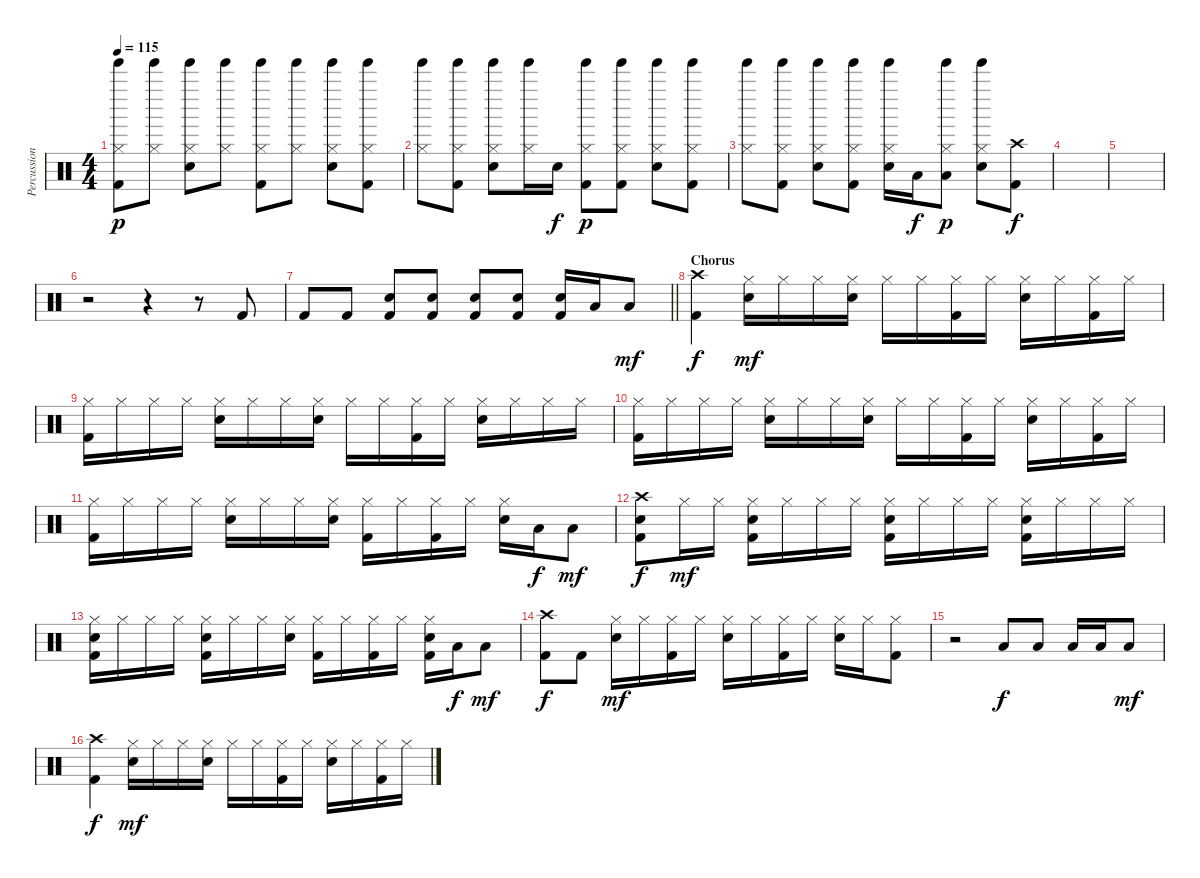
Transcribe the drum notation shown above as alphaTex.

\track ("Percussion" "Percussion") {instrument percussion}
\staff {score}
\articulation defaults
\ts (4 4)
\tempo 115
\clef neutral
\ks c
("Hi-Hat (closed)" "Tinkle Bell (hit)" "Kick (hit) 2").8{dy p} ("Hi-Hat (closed)" "Tinkle Bell (hit)").8 ("Hi-Hat (closed)" "Tinkle Bell (hit)" "Electric Snare (hit)").8 ("Hi-Hat (closed)" "Tinkle Bell (hit)").8 ("Hi-Hat (closed)" "Tinkle Bell (hit)" "Kick (hit) 2").8 ("Hi-Hat (closed)" "Tinkle Bell (hit)").8 ("Hi-Hat (closed)" "Tinkle Bell (hit)" "Electric Snare (hit)").8 ("Hi-Hat (closed)" "Tinkle Bell (hit)" "Kick (hit) 2").8 |
("Hi-Hat (closed)" "Tinkle Bell (hit)").8 ("Hi-Hat (closed)" "Tinkle Bell (hit)" "Kick (hit) 2").8 ("Hi-Hat (closed)" "Tinkle Bell (hit)" "Electric Snare (hit)").8 ("Hi-Hat (closed)" "Tinkle Bell (hit)").16 "Electric Snare (hit)".16{dy f} ("Hi-Hat (closed)" "Tinkle Bell (hit)" "Kick (hit) 2").8{dy p} ("Hi-Hat (closed)" "Tinkle Bell (hit)" "Kick (hit) 2").8 ("Hi-Hat (closed)" "Tinkle Bell (hit)" "Electric Snare (hit)").8 ("Hi-Hat (closed)" "Tinkle Bell (hit)" "Kick (hit) 2").8 |
("Hi-Hat (closed)" "Tinkle Bell (hit)").8 ("Hi-Hat (closed)" "Tinkle Bell (hit)" "Kick (hit) 2").8 ("Hi-Hat (closed)" "Tinkle Bell (hit)" "Electric Snare (hit)").8 ("Hi-Hat (closed)" "Tinkle Bell (hit)" "Kick (hit) 2").8 ("Hi-Hat (closed)" "Tinkle Bell (hit)" "Electric Snare (hit)").16 "Low Tom (hit)".16{dy f} ("Hi-Hat (closed)" "Tinkle Bell (hit)" "Low Tom (hit)").8{dy p} ("Hi-Hat (closed)" "Tinkle Bell (hit)" "Electric Snare (hit)").8 ("Crash high (hit)" "Kick (hit) 2").8{dy f} |
|
|
r.2 r.4 r.8 "Kick (hit) 2".8 |
\barLineRight lightlight "Kick (hit) 2".8 "Kick (hit) 2".8
("Electric Snare (hit)" "Kick (hit) 2").8 ("Electric Snare (hit)" "Kick (hit) 2").8 ("Electric Snare (hit)" "Kick (hit) 2").8 ("Electric Snare (hit)" "Kick (hit) 2").8 ("Electric Snare (hit)" "Kick (hit) 2").16 "Low Tom (hit)".16 "Low Tom (hit)".8{dy mf} |
\section ("" "Chorus")
("Crash high (hit)" "Kick (hit) 2").4{dy f} ("Hi-Hat (closed)" "Electric Snare (hit)").16{dy mf} "Hi-Hat (closed)".16 "Hi-Hat (closed)".16 ("Hi-Hat (closed)" "Electric Snare (hit)").16 "Hi-Hat (closed)".16 "Hi-Hat (closed)".16 ("Hi-Hat (closed)" "Kick (hit) 2").16 "Hi-Hat (closed)".16 ("Hi-Hat (closed)" "Electric Snare (hit)").16 "Hi-Hat (closed)".16 ("Hi-Hat (closed)" "Kick (hit) 2").16 "Hi-Hat (closed)".16 |
("Hi-Hat (closed)" "Kick (hit) 2").16 "Hi-Hat (closed)".16 "Hi-Hat (closed)".16 "Hi-Hat (closed)".16 ("Hi-Hat (closed)" "Electric Snare (hit)").16 "Hi-Hat (closed)".16 "Hi-Hat (closed)".16 ("Hi-Hat (closed)" "Electric Snare (hit)").16 "Hi-Hat (closed)".16 "Hi-Hat (closed)".16 ("Hi-Hat (closed)" "Kick (hit) 2").16 "Hi-Hat (closed)".16 ("Hi-Hat (closed)" "Electric Snare (hit)").16 "Hi-Hat (closed)".16 "Hi-Hat (closed)".16 "Hi-Hat (closed)".16 |
("Hi-Hat (closed)" "Kick (hit) 2").16 "Hi-Hat (closed)".16 "Hi-Hat (closed)".16 "Hi-Hat (closed)".16 ("Hi-Hat (closed)" "Electric Snare (hit)").16 "Hi-Hat (closed)".16 "Hi-Hat (closed)".16 ("Hi-Hat (closed)" "Electric Snare (hit)").16 "Hi-Hat (closed)".16 "Hi-Hat (closed)".16 ("Hi-Hat (closed)" "Kick (hit) 2").16 "Hi-Hat (closed)".16 ("Hi-Hat (closed)" "Electric Snare (hit)").16 "Hi-Hat (closed)".16 ("Hi-Hat (closed)" "Kick (hit) 2").16 "Hi-Hat (closed)".16 |
("Hi-Hat (closed)" "Kick (hit) 2").16 "Hi-Hat (closed)".16 "Hi-Hat (closed)".16 "Hi-Hat (closed)".16 ("Hi-Hat (closed)" "Electric Snare (hit)").16 "Hi-Hat (closed)".16 "Hi-Hat (closed)".16 ("Hi-Hat (closed)" "Electric Snare (hit)").16 ("Hi-Hat (closed)" "Kick (hit) 2").16 "Hi-Hat (closed)".16 ("Hi-Hat (closed)" "Kick (hit) 2").16 "Hi-Hat (closed)".16 ("Hi-Hat (closed)" "Electric Snare (hit)").16 "Low Tom (hit)".16{dy f} "Low Tom (hit)".8{dy mf} |
("Crash high (hit)" "Electric Snare (hit)" "Kick (hit) 2").8{dy f} "Hi-Hat (closed)".16{dy mf} "Hi-Hat (closed)".16 ("Hi-Hat (closed)" "Electric Snare (hit)" "Kick (hit) 2").16 "Hi-Hat (closed)".16 "Hi-Hat (closed)".16 "Hi-Hat (closed)".16 ("Hi-Hat (closed)" "Electric Snare (hit)" "Kick (hit) 2").16 "Hi-Hat (closed)".16 "Hi-Hat (closed)".16 "Hi-Hat (closed)".16 ("Hi-Hat (closed)" "Electric Snare (hit)" "Kick (hit) 2").16 "Hi-Hat (closed)".16 "Hi-Hat (closed)".16 "Hi-Hat (closed)".16 |
("Hi-Hat (closed)" "Electric Snare (hit)" "Kick (hit) 2").16 "Hi-Hat (closed)".16 "Hi-Hat (closed)".16 "Hi-Hat (closed)".16 ("Hi-Hat (closed)" "Electric Snare (hit)" "Kick (hit) 2").16 "Hi-Hat (closed)".16 "Hi-Hat (closed)".16 ("Hi-Hat (closed)" "Electric Snare (hit)").16 ("Hi-Hat (closed)" "Kick (hit) 2").16 "Hi-Hat (closed)".16 ("Hi-Hat (closed)" "Kick (hit) 2").16 "Hi-Hat (closed)".16 ("Hi-Hat (closed)" "Electric Snare (hit)" "Kick (hit) 2").16 "Low Tom (hit)".16{dy f} "Low Tom (hit)".8{dy mf} |
("Crash high (hit)" "Kick (hit) 2").8{dy f} "Kick (hit) 2".8 ("Hi-Hat (closed)" "Electric Snare (hit)").16{dy mf} "Hi-Hat (closed)".16 ("Hi-Hat (closed)" "Kick (hit) 2").16 "Hi-Hat (closed)".16 ("Hi-Hat (closed)" "Electric Snare (hit)").16 "Hi-Hat (closed)".16 ("Hi-Hat (closed)" "Kick (hit) 2").16 "Hi-Hat (closed)".16 ("Hi-Hat (closed)" "Electric Snare (hit)").16 "Hi-Hat (closed)".16 ("Hi-Hat (closed)" "Kick (hit) 2").8 |
r.2 "Low Tom (hit)".8{dy f} "Low Tom (hit)".8 "Low Tom (hit)".16 "Low Tom (hit)".16 "Low Tom (hit)".8{dy mf} |
("Crash high (hit)" "Kick (hit) 2").4{dy f} ("Hi-Hat (closed)" "Electric Snare (hit)").16{dy mf} "Hi-Hat (closed)".16 "Hi-Hat (closed)".16 ("Hi-Hat (closed)" "Electric Snare (hit)").16 "Hi-Hat (closed)".16 "Hi-Hat (closed)".16 ("Hi-Hat (closed)" "Kick (hit) 2").16 "Hi-Hat (closed)".16 ("Hi-Hat (closed)" "Electric Snare (hit)").16 "Hi-Hat (closed)".16 ("Hi-Hat (closed)" "Kick (hit) 2").16 "Hi-Hat (closed)".16
